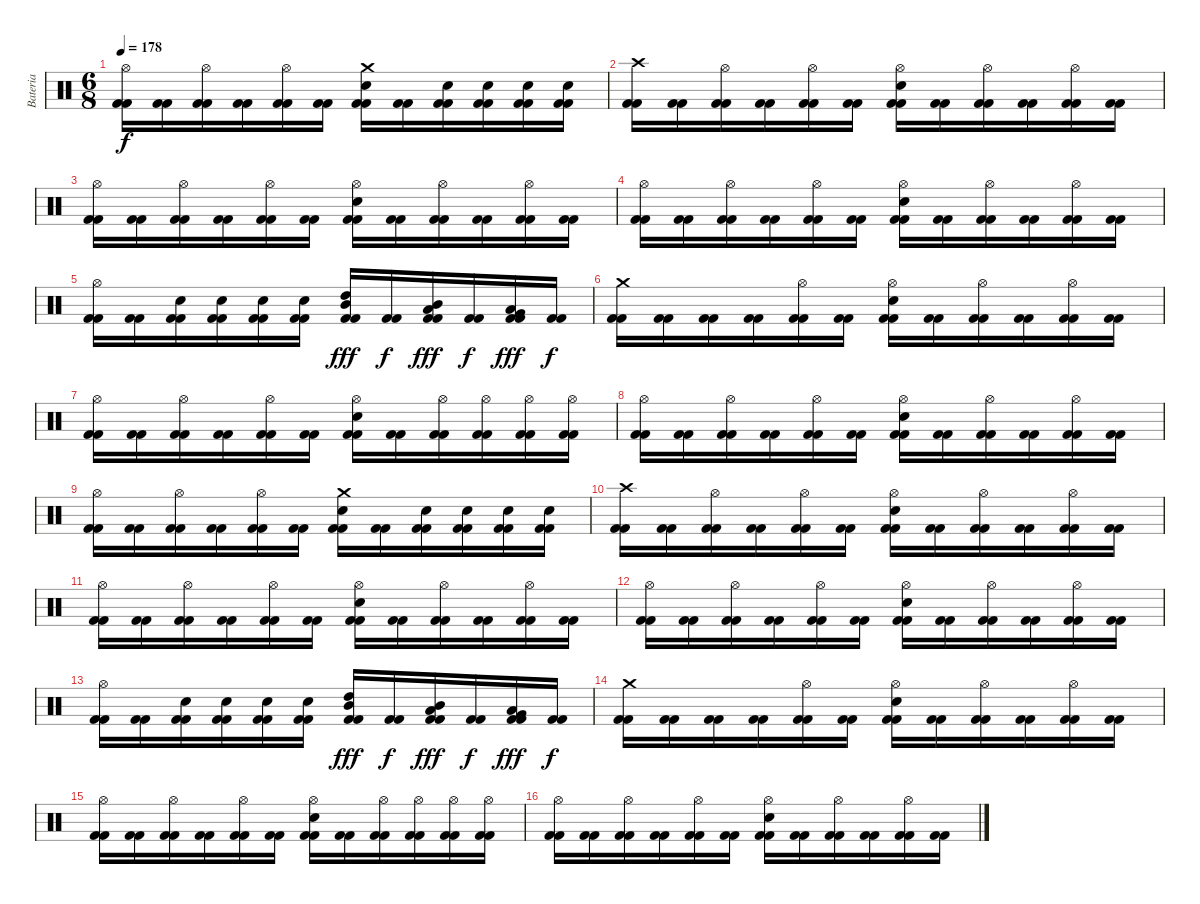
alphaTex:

\track ("Bateria" "Bateria") {instrument percussion}
\staff {score}
\articulation defaults
\ts (6 8)
\tempo 178
\clef neutral
\ks c
("Kick (hit) 2" "Kick (hit) 2" "Hi-Hat (open)").16{dy f} ("Kick (hit) 2" "Kick (hit) 2").16 ("Kick (hit) 2" "Kick (hit) 2" "Hi-Hat (open)").16 ("Kick (hit) 2" "Kick (hit) 2").16 ("Kick (hit) 2" "Kick (hit) 2" "Hi-Hat (open)").16 ("Kick (hit) 2" "Kick (hit) 2").16 ("Kick (hit) 2" "Kick (hit) 2" "Snare (hit) 2" "Crash medium (hit)").16 ("Kick (hit) 2" "Kick (hit) 2").16 ("Kick (hit) 2" "Kick (hit) 2" "Snare (hit) 2").16 ("Kick (hit) 2" "Kick (hit) 2" "Snare (hit) 2").16 ("Kick (hit) 2" "Kick (hit) 2" "Snare (hit) 2").16 ("Kick (hit) 2" "Kick (hit) 2" "Snare (hit) 2").16 |
("Kick (hit) 2" "Kick (hit) 2" "Crash high (hit)").16 ("Kick (hit) 2" "Kick (hit) 2").16 ("Kick (hit) 2" "Kick (hit) 2" "Hi-Hat (open)").16 ("Kick (hit) 2" "Kick (hit) 2").16 ("Kick (hit) 2" "Kick (hit) 2" "Hi-Hat (open)").16 ("Kick (hit) 2" "Kick (hit) 2").16 ("Kick (hit) 2" "Kick (hit) 2" "Snare (hit) 2" "Hi-Hat (open)").16 ("Kick (hit) 2" "Kick (hit) 2").16 ("Kick (hit) 2" "Kick (hit) 2" "Hi-Hat (open)").16 ("Kick (hit) 2" "Kick (hit) 2").16 ("Kick (hit) 2" "Kick (hit) 2" "Hi-Hat (open)").16 ("Kick (hit) 2" "Kick (hit) 2").16 |
("Kick (hit) 2" "Kick (hit) 2" "Hi-Hat (open)").16 ("Kick (hit) 2" "Kick (hit) 2").16 ("Kick (hit) 2" "Kick (hit) 2" "Hi-Hat (open)").16 ("Kick (hit) 2" "Kick (hit) 2").16 ("Kick (hit) 2" "Kick (hit) 2" "Hi-Hat (open)").16 ("Kick (hit) 2" "Kick (hit) 2").16 ("Kick (hit) 2" "Kick (hit) 2" "Snare (hit) 2" "Hi-Hat (open)").16 ("Kick (hit) 2" "Kick (hit) 2").16 ("Kick (hit) 2" "Kick (hit) 2" "Hi-Hat (open)").16 ("Kick (hit) 2" "Kick (hit) 2").16 ("Kick (hit) 2" "Kick (hit) 2" "Hi-Hat (open)").16 ("Kick (hit) 2" "Kick (hit) 2").16 |
("Kick (hit) 2" "Kick (hit) 2" "Hi-Hat (open)").16 ("Kick (hit) 2" "Kick (hit) 2").16 ("Kick (hit) 2" "Kick (hit) 2" "Hi-Hat (open)").16 ("Kick (hit) 2" "Kick (hit) 2").16 ("Kick (hit) 2" "Kick (hit) 2" "Hi-Hat (open)").16 ("Kick (hit) 2" "Kick (hit) 2").16 ("Kick (hit) 2" "Kick (hit) 2" "Snare (hit) 2" "Hi-Hat (open)").16 ("Kick (hit) 2" "Kick (hit) 2").16 ("Kick (hit) 2" "Kick (hit) 2" "Hi-Hat (open)").16 ("Kick (hit) 2" "Kick (hit) 2").16 ("Kick (hit) 2" "Kick (hit) 2" "Hi-Hat (open)").16 ("Kick (hit) 2" "Kick (hit) 2").16 |
("Kick (hit) 2" "Kick (hit) 2" "Hi-Hat (open)").16 ("Kick (hit) 2" "Kick (hit) 2").16 ("Kick (hit) 2" "Kick (hit) 2" "Snare (hit) 2").16 ("Kick (hit) 2" "Kick (hit) 2" "Snare (hit) 2").16 ("Kick (hit) 2" "Kick (hit) 2" "Snare (hit) 2").16 ("Kick (hit) 2" "Kick (hit) 2" "Snare (hit) 2").16 ("Kick (hit) 2" "Kick (hit) 2" "Mid Tom (hit)" "High Tom (hit)").16{dy fff} ("Kick (hit) 2" "Kick (hit) 2").16{dy f} ("Kick (hit) 2" "Kick (hit) 2" "Low Tom (hit)" "Mid Tom (hit)").16{dy fff} ("Kick (hit) 2" "Kick (hit) 2").16{dy f} ("Kick (hit) 2" "Kick (hit) 2" "Very Low Tom (hit)" "Low Tom (hit)").16{dy fff} ("Kick (hit) 2" "Kick (hit) 2").16{dy f} |
("Kick (hit) 2" "Kick (hit) 2" "Crash medium (hit)").16 ("Kick (hit) 2" "Kick (hit) 2").16 ("Kick (hit) 2" "Kick (hit) 2").16 ("Kick (hit) 2" "Kick (hit) 2").16 ("Kick (hit) 2" "Kick (hit) 2" "Hi-Hat (open)").16 ("Kick (hit) 2" "Kick (hit) 2").16 ("Kick (hit) 2" "Kick (hit) 2" "Snare (hit) 2" "Hi-Hat (open)").16 ("Kick (hit) 2" "Kick (hit) 2").16 ("Kick (hit) 2" "Kick (hit) 2" "Hi-Hat (open)").16 ("Kick (hit) 2" "Kick (hit) 2").16 ("Kick (hit) 2" "Kick (hit) 2" "Hi-Hat (open)").16 ("Kick (hit) 2" "Kick (hit) 2").16 |
("Kick (hit) 2" "Kick (hit) 2" "Hi-Hat (open)").16 ("Kick (hit) 2" "Kick (hit) 2").16 ("Kick (hit) 2" "Kick (hit) 2" "Hi-Hat (open)").16 ("Kick (hit) 2" "Kick (hit) 2").16 ("Kick (hit) 2" "Kick (hit) 2" "Hi-Hat (open)").16 ("Kick (hit) 2" "Kick (hit) 2").16 ("Kick (hit) 2" "Kick (hit) 2" "Snare (hit) 2" "Hi-Hat (open)").16 ("Kick (hit) 2" "Kick (hit) 2").16 ("Kick (hit) 2" "Kick (hit) 2" "Hi-Hat (open)").16 ("Kick (hit) 2" "Kick (hit) 2" "Hi-Hat (open)").16 ("Kick (hit) 2" "Kick (hit) 2" "Hi-Hat (open)").16 ("Kick (hit) 2" "Kick (hit) 2" "Hi-Hat (open)").16 |
("Kick (hit) 2" "Kick (hit) 2" "Hi-Hat (open)").16 ("Kick (hit) 2" "Kick (hit) 2").16 ("Kick (hit) 2" "Kick (hit) 2" "Hi-Hat (open)").16 ("Kick (hit) 2" "Kick (hit) 2").16 ("Kick (hit) 2" "Kick (hit) 2" "Hi-Hat (open)").16 ("Kick (hit) 2" "Kick (hit) 2").16 ("Kick (hit) 2" "Kick (hit) 2" "Snare (hit) 2" "Hi-Hat (open)").16 ("Kick (hit) 2" "Kick (hit) 2").16 ("Kick (hit) 2" "Kick (hit) 2" "Hi-Hat (open)").16 ("Kick (hit) 2" "Kick (hit) 2").16 ("Kick (hit) 2" "Kick (hit) 2" "Hi-Hat (open)").16 ("Kick (hit) 2" "Kick (hit) 2").16 |
("Kick (hit) 2" "Kick (hit) 2" "Hi-Hat (open)").16 ("Kick (hit) 2" "Kick (hit) 2").16 ("Kick (hit) 2" "Kick (hit) 2" "Hi-Hat (open)").16 ("Kick (hit) 2" "Kick (hit) 2").16 ("Kick (hit) 2" "Kick (hit) 2" "Hi-Hat (open)").16 ("Kick (hit) 2" "Kick (hit) 2").16 ("Kick (hit) 2" "Kick (hit) 2" "Snare (hit) 2" "Crash medium (hit)").16 ("Kick (hit) 2" "Kick (hit) 2").16 ("Kick (hit) 2" "Kick (hit) 2" "Snare (hit) 2").16 ("Kick (hit) 2" "Kick (hit) 2" "Snare (hit) 2").16 ("Kick (hit) 2" "Kick (hit) 2" "Snare (hit) 2").16 ("Kick (hit) 2" "Kick (hit) 2" "Snare (hit) 2").16 |
("Kick (hit) 2" "Kick (hit) 2" "Crash high (hit)").16 ("Kick (hit) 2" "Kick (hit) 2").16 ("Kick (hit) 2" "Kick (hit) 2" "Hi-Hat (open)").16 ("Kick (hit) 2" "Kick (hit) 2").16 ("Kick (hit) 2" "Kick (hit) 2" "Hi-Hat (open)").16 ("Kick (hit) 2" "Kick (hit) 2").16 ("Kick (hit) 2" "Kick (hit) 2" "Snare (hit) 2" "Hi-Hat (open)").16 ("Kick (hit) 2" "Kick (hit) 2").16 ("Kick (hit) 2" "Kick (hit) 2" "Hi-Hat (open)").16 ("Kick (hit) 2" "Kick (hit) 2").16 ("Kick (hit) 2" "Kick (hit) 2" "Hi-Hat (open)").16 ("Kick (hit) 2" "Kick (hit) 2").16 |
("Kick (hit) 2" "Kick (hit) 2" "Hi-Hat (open)").16 ("Kick (hit) 2" "Kick (hit) 2").16 ("Kick (hit) 2" "Kick (hit) 2" "Hi-Hat (open)").16 ("Kick (hit) 2" "Kick (hit) 2").16 ("Kick (hit) 2" "Kick (hit) 2" "Hi-Hat (open)").16 ("Kick (hit) 2" "Kick (hit) 2").16 ("Kick (hit) 2" "Kick (hit) 2" "Snare (hit) 2" "Hi-Hat (open)").16 ("Kick (hit) 2" "Kick (hit) 2").16 ("Kick (hit) 2" "Kick (hit) 2" "Hi-Hat (open)").16 ("Kick (hit) 2" "Kick (hit) 2").16 ("Kick (hit) 2" "Kick (hit) 2" "Hi-Hat (open)").16 ("Kick (hit) 2" "Kick (hit) 2").16 |
("Kick (hit) 2" "Kick (hit) 2" "Hi-Hat (open)").16 ("Kick (hit) 2" "Kick (hit) 2").16 ("Kick (hit) 2" "Kick (hit) 2" "Hi-Hat (open)").16 ("Kick (hit) 2" "Kick (hit) 2").16 ("Kick (hit) 2" "Kick (hit) 2" "Hi-Hat (open)").16 ("Kick (hit) 2" "Kick (hit) 2").16 ("Kick (hit) 2" "Kick (hit) 2" "Snare (hit) 2" "Hi-Hat (open)").16 ("Kick (hit) 2" "Kick (hit) 2").16 ("Kick (hit) 2" "Kick (hit) 2" "Hi-Hat (open)").16 ("Kick (hit) 2" "Kick (hit) 2").16 ("Kick (hit) 2" "Kick (hit) 2" "Hi-Hat (open)").16 ("Kick (hit) 2" "Kick (hit) 2").16 |
("Kick (hit) 2" "Kick (hit) 2" "Hi-Hat (open)").16 ("Kick (hit) 2" "Kick (hit) 2").16 ("Kick (hit) 2" "Kick (hit) 2" "Snare (hit) 2").16 ("Kick (hit) 2" "Kick (hit) 2" "Snare (hit) 2").16 ("Kick (hit) 2" "Kick (hit) 2" "Snare (hit) 2").16 ("Kick (hit) 2" "Kick (hit) 2" "Snare (hit) 2").16 ("Kick (hit) 2" "Kick (hit) 2" "Mid Tom (hit)" "High Tom (hit)").16{dy fff} ("Kick (hit) 2" "Kick (hit) 2").16{dy f} ("Kick (hit) 2" "Kick (hit) 2" "Low Tom (hit)" "Mid Tom (hit)").16{dy fff} ("Kick (hit) 2" "Kick (hit) 2").16{dy f} ("Kick (hit) 2" "Kick (hit) 2" "Very Low Tom (hit)" "Low Tom (hit)").16{dy fff} ("Kick (hit) 2" "Kick (hit) 2").16{dy f} |
("Kick (hit) 2" "Kick (hit) 2" "Crash medium (hit)").16 ("Kick (hit) 2" "Kick (hit) 2").16 ("Kick (hit) 2" "Kick (hit) 2").16 ("Kick (hit) 2" "Kick (hit) 2").16 ("Kick (hit) 2" "Kick (hit) 2" "Hi-Hat (open)").16 ("Kick (hit) 2" "Kick (hit) 2").16 ("Kick (hit) 2" "Kick (hit) 2" "Snare (hit) 2" "Hi-Hat (open)").16 ("Kick (hit) 2" "Kick (hit) 2").16 ("Kick (hit) 2" "Kick (hit) 2" "Hi-Hat (open)").16 ("Kick (hit) 2" "Kick (hit) 2").16 ("Kick (hit) 2" "Kick (hit) 2" "Hi-Hat (open)").16 ("Kick (hit) 2" "Kick (hit) 2").16 |
("Kick (hit) 2" "Kick (hit) 2" "Hi-Hat (open)").16 ("Kick (hit) 2" "Kick (hit) 2").16 ("Kick (hit) 2" "Kick (hit) 2" "Hi-Hat (open)").16 ("Kick (hit) 2" "Kick (hit) 2").16 ("Kick (hit) 2" "Kick (hit) 2" "Hi-Hat (open)").16 ("Kick (hit) 2" "Kick (hit) 2").16 ("Kick (hit) 2" "Kick (hit) 2" "Snare (hit) 2" "Hi-Hat (open)").16 ("Kick (hit) 2" "Kick (hit) 2").16 ("Kick (hit) 2" "Kick (hit) 2" "Hi-Hat (open)").16 ("Kick (hit) 2" "Kick (hit) 2" "Hi-Hat (open)").16 ("Kick (hit) 2" "Kick (hit) 2" "Hi-Hat (open)").16 ("Kick (hit) 2" "Kick (hit) 2" "Hi-Hat (open)").16 |
("Kick (hit) 2" "Kick (hit) 2" "Hi-Hat (open)").16 ("Kick (hit) 2" "Kick (hit) 2").16 ("Kick (hit) 2" "Kick (hit) 2" "Hi-Hat (open)").16 ("Kick (hit) 2" "Kick (hit) 2").16 ("Kick (hit) 2" "Kick (hit) 2" "Hi-Hat (open)").16 ("Kick (hit) 2" "Kick (hit) 2").16 ("Kick (hit) 2" "Kick (hit) 2" "Snare (hit) 2" "Hi-Hat (open)").16 ("Kick (hit) 2" "Kick (hit) 2").16 ("Kick (hit) 2" "Kick (hit) 2" "Hi-Hat (open)").16 ("Kick (hit) 2" "Kick (hit) 2").16 ("Kick (hit) 2" "Kick (hit) 2" "Hi-Hat (open)").16 ("Kick (hit) 2" "Kick (hit) 2").16
